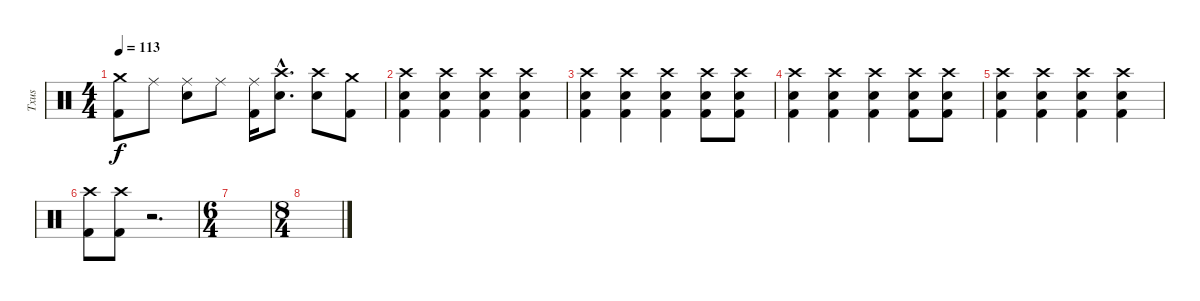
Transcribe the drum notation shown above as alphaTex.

\track ("Txus" "Txus") {instrument percussion}
\staff {score}
\articulation defaults
\ts (4 4)
\tempo 113
\clef neutral
\ks c
("Kick (hit) 2" "Crash medium (hit)").8{dy f} "Ride (middle)".8 ("Electric Snare (hit)" "Ride (middle)").8 "Ride (middle)".8 ("Kick (hit) 2" "Ride (middle)").16 ("Electric Snare (hit)"{hac} "Crash high (hit)"{hac}).8{d} ("Electric Snare (hit)" "Crash high (hit)").8 ("Kick (hit) 2" "Crash medium (hit)").8 |
("Electric Snare (hit)" "Crash high (hit)" "Kick (hit) 2").4 ("Electric Snare (hit)" "Crash high (hit)" "Kick (hit) 2").4 ("Electric Snare (hit)" "Crash high (hit)" "Kick (hit) 2").4 ("Electric Snare (hit)" "Crash high (hit)" "Kick (hit) 2").4 |
("Electric Snare (hit)" "Crash high (hit)" "Kick (hit) 2").4 ("Electric Snare (hit)" "Crash high (hit)" "Kick (hit) 2").4 ("Electric Snare (hit)" "Crash high (hit)" "Kick (hit) 2").4 ("Electric Snare (hit)" "Crash high (hit)" "Kick (hit) 2").8 ("Electric Snare (hit)" "Crash high (hit)" "Kick (hit) 2").8 |
("Electric Snare (hit)" "Crash high (hit)" "Kick (hit) 2").4 ("Electric Snare (hit)" "Crash high (hit)" "Kick (hit) 2").4 ("Electric Snare (hit)" "Crash high (hit)" "Kick (hit) 2").4 ("Electric Snare (hit)" "Crash high (hit)" "Kick (hit) 2").8 ("Electric Snare (hit)" "Crash high (hit)" "Kick (hit) 2").8 |
("Electric Snare (hit)" "Crash high (hit)" "Kick (hit) 2").4 ("Electric Snare (hit)" "Crash high (hit)" "Kick (hit) 2").4 ("Electric Snare (hit)" "Crash high (hit)" "Kick (hit) 2").4 ("Electric Snare (hit)" "Crash high (hit)" "Kick (hit) 2").4 |
("Kick (hit) 2" "Crash high (hit)").8 ("Kick (hit) 2" "Crash high (hit)").8 r.2{d} |
\ts (6 4)
|
\ts (8 4)
